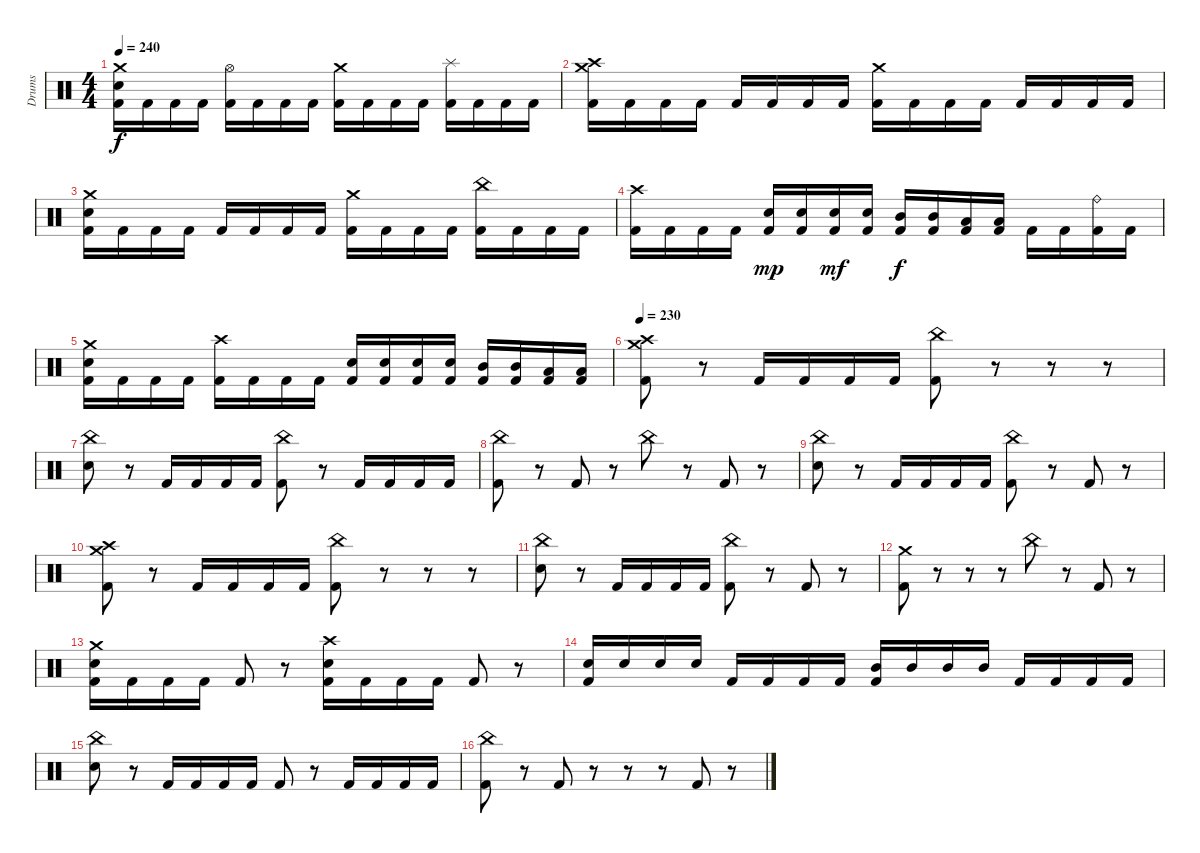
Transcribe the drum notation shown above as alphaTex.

\track ("Drums" "Drums") {instrument percussion}
\staff {score}
\articulation defaults
\ts (4 4)
\tempo 240
\clef neutral
\ks c
("Crash medium (hit)" "Electric Snare (hit)" "Kick (hit) 2").16{dy f} "Kick (hit) 2".16 "Kick (hit) 2".16 "Kick (hit) 2".16 ("Hi-Hat (open)" "Kick (hit) 2").16 "Kick (hit) 2".16 "Kick (hit) 2".16 "Kick (hit) 2".16 ("Crash medium (hit)" "Kick (hit) 2").16 "Kick (hit) 2".16 "Kick (hit) 2".16 "Kick (hit) 2".16 ("Splash (hit)" "Kick (hit) 2").16 "Kick (hit) 2".16 "Kick (hit) 2".16 "Kick (hit) 2".16 |
("Crash medium (hit)" "Crash high (hit)" "Kick (hit) 2").16 "Kick (hit) 2".16 "Kick (hit) 2".16 "Kick (hit) 2".16 "Kick (hit) 2".16 "Kick (hit) 2".16 "Kick (hit) 2".16 "Kick (hit) 2".16 ("Crash medium (hit)" "Kick (hit) 2").16 "Kick (hit) 2".16 "Kick (hit) 2".16 "Kick (hit) 2".16 "Kick (hit) 2".16 "Kick (hit) 2".16 "Kick (hit) 2".16 "Kick (hit) 2".16 |
("Crash medium (hit)" "Electric Snare (hit)" "Kick (hit) 2").16 "Kick (hit) 2".16 "Kick (hit) 2".16 "Kick (hit) 2".16 "Kick (hit) 2".16 "Kick (hit) 2".16 "Kick (hit) 2".16 "Kick (hit) 2".16 ("Crash medium (hit)" "Kick (hit) 2").16 "Kick (hit) 2".16 "Kick (hit) 2".16 "Kick (hit) 2".16 ("China (hit)" "Kick (hit) 2").16 "Kick (hit) 2".16 "Kick (hit) 2".16 "Kick (hit) 2".16 |
("Crash high (hit)" "Kick (hit) 2").16 "Kick (hit) 2".16 "Kick (hit) 2".16 "Kick (hit) 2".16 ("Electric Snare (hit)" "Kick (hit) 2").16{dy mp} ("Electric Snare (hit)" "Kick (hit) 2").16 ("Electric Snare (hit)" "Kick (hit) 2").16{dy mf} ("Electric Snare (hit)" "Kick (hit) 2").16 ("Mid Tom (hit)" "Kick (hit) 2").16{dy f} ("Mid Tom (hit)" "Kick (hit) 2").16 ("Low Tom (hit)" "Kick (hit) 2").16 ("Low Tom (hit)" "Kick (hit) 2").16 "Kick (hit) 2".16 "Kick (hit) 2".16 ("Ride (bell)" "Kick (hit) 2").16 "Kick (hit) 2".16 |
("Crash medium (hit)" "Electric Snare (hit)" "Kick (hit) 2").16 "Kick (hit) 2".16 "Kick (hit) 2".16 "Kick (hit) 2".16 ("Crash high (hit)" "Kick (hit) 2").16 "Kick (hit) 2".16 "Kick (hit) 2".16 "Kick (hit) 2".16 ("Electric Snare (hit)" "Kick (hit) 2").16 ("Electric Snare (hit)" "Kick (hit) 2").16 ("Electric Snare (hit)" "Kick (hit) 2").16 ("Electric Snare (hit)" "Kick (hit) 2").16 ("Mid Tom (hit)" "Kick (hit) 2").16 ("Mid Tom (hit)" "Kick (hit) 2").16 ("Low Tom (hit)" "Kick (hit) 2").16 ("Low Tom (hit)" "Kick (hit) 2").16 |
\tempo 230
("Crash medium (hit)" "Crash high (hit)" "Kick (hit) 2").8 r.8 "Kick (hit) 2".16 "Kick (hit) 2".16 "Kick (hit) 2".16 "Kick (hit) 2".16 ("China (hit)" "Kick (hit) 2").8 r.8 r.8 r.8 |
("China (hit)" "Electric Snare (hit)").8 r.8 "Kick (hit) 2".16 "Kick (hit) 2".16 "Kick (hit) 2".16 "Kick (hit) 2".16 ("China (hit)" "Kick (hit) 2").8 r.8 "Kick (hit) 2".16 "Kick (hit) 2".16 "Kick (hit) 2".16 "Kick (hit) 2".16 |
("China (hit)" "Kick (hit) 2").8 r.8 "Kick (hit) 2".8 r.8 "China (hit)".8 r.8 "Kick (hit) 2".8 r.8 |
("China (hit)" "Electric Snare (hit)").8 r.8 "Kick (hit) 2".16 "Kick (hit) 2".16 "Kick (hit) 2".16 "Kick (hit) 2".16 ("China (hit)" "Kick (hit) 2").8 r.8 "Kick (hit) 2".8 r.8 |
("Crash medium (hit)" "Crash high (hit)" "Kick (hit) 2").8 r.8 "Kick (hit) 2".16 "Kick (hit) 2".16 "Kick (hit) 2".16 "Kick (hit) 2".16 ("China (hit)" "Kick (hit) 2").8 r.8 r.8 r.8 |
("China (hit)" "Electric Snare (hit)").8 r.8 "Kick (hit) 2".16 "Kick (hit) 2".16 "Kick (hit) 2".16 "Kick (hit) 2".16 ("China (hit)" "Kick (hit) 2").8 r.8 "Kick (hit) 2".8 r.8 |
("Crash medium (hit)" "Kick (hit) 2").8 r.8 r.8 r.8 "China (hit)".8 r.8 "Kick (hit) 2".8 r.8 |
("Crash medium (hit)" "Electric Snare (hit)" "Kick (hit) 2").16 "Kick (hit) 2".16 "Kick (hit) 2".16 "Kick (hit) 2".16 "Kick (hit) 2".8 r.8 ("Crash high (hit)" "Electric Snare (hit)" "Kick (hit) 2").16 "Kick (hit) 2".16 "Kick (hit) 2".16 "Kick (hit) 2".16 "Kick (hit) 2".8 r.8 |
("Electric Snare (hit)" "Kick (hit) 2").16 "Electric Snare (hit)".16 "Electric Snare (hit)".16 "Electric Snare (hit)".16 "Kick (hit) 2".16 "Kick (hit) 2".16 "Kick (hit) 2".16 "Kick (hit) 2".16 ("Mid Tom (hit)" "Kick (hit) 2").16 "Mid Tom (hit)".16 "Mid Tom (hit)".16 "Mid Tom (hit)".16 "Kick (hit) 2".16 "Kick (hit) 2".16 "Kick (hit) 2".16 "Kick (hit) 2".16 |
("China (hit)" "Electric Snare (hit)").8 r.8 "Kick (hit) 2".16 "Kick (hit) 2".16 "Kick (hit) 2".16 "Kick (hit) 2".16 "Kick (hit) 2".8 r.8 "Kick (hit) 2".16 "Kick (hit) 2".16 "Kick (hit) 2".16 "Kick (hit) 2".16 |
("China (hit)" "Kick (hit) 2").8 r.8 "Kick (hit) 2".8 r.8 r.8 r.8 "Kick (hit) 2".8 r.8
